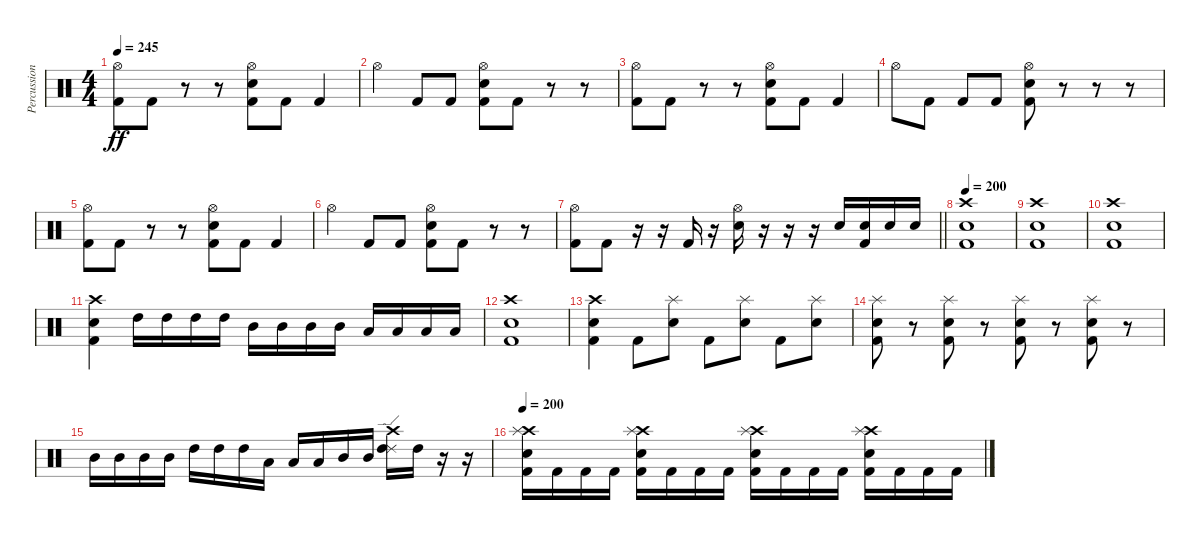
\track ("Percussion" "Percussion") {instrument percussion}
\staff {score}
\articulation defaults
\ts (4 4)
\tempo 245
\clef neutral
\ks c
("Hi-Hat (open)" "Kick (hit) 2").8{dy ff} "Kick (hit) 2".8 r.8 r.8 ("Hi-Hat (open)" "Electric Snare (hit)" "Kick (hit) 2").8 "Kick (hit) 2".8 "Kick (hit) 2".4 |
"Hi-Hat (open)".4 "Kick (hit) 2".8 "Kick (hit) 2".8 ("Hi-Hat (open)" "Electric Snare (hit)" "Kick (hit) 2").8 "Kick (hit) 2".8 r.8 r.8 |
("Hi-Hat (open)" "Kick (hit) 2").8 "Kick (hit) 2".8 r.8 r.8 ("Hi-Hat (open)" "Electric Snare (hit)" "Kick (hit) 2").8 "Kick (hit) 2".8 "Kick (hit) 2".4 |
"Hi-Hat (open)".8 "Kick (hit) 2".8 "Kick (hit) 2".8 "Kick (hit) 2".8 ("Hi-Hat (open)" "Electric Snare (hit)" "Kick (hit) 2").8 r.8 r.8 r.8 |
("Hi-Hat (open)" "Kick (hit) 2").8 "Kick (hit) 2".8 r.8 r.8 ("Hi-Hat (open)" "Electric Snare (hit)" "Kick (hit) 2").8 "Kick (hit) 2".8 "Kick (hit) 2".4 |
"Hi-Hat (open)".4 "Kick (hit) 2".8 "Kick (hit) 2".8 ("Hi-Hat (open)" "Electric Snare (hit)" "Kick (hit) 2").8 "Kick (hit) 2".8 r.8 r.8 |
\barLineRight lightlight
("Hi-Hat (open)" "Kick (hit) 2").8 "Kick (hit) 2".8 r.16 r.16 "Kick (hit) 2".16 r.16 ("Hi-Hat (open)" "Electric Snare (hit)").16 r.16 r.16 r.16 "Electric Snare (hit)".16 ("Electric Snare (hit)" "Kick (hit) 2").16 "Electric Snare (hit)".16 "Electric Snare (hit)".16 |
\tempo 200
("Crash high (hit)" "Electric Snare (hit)" "Kick (hit) 2").1 |
("Crash high (hit)" "Electric Snare (hit)" "Kick (hit) 2").1 |
("Crash high (hit)" "Electric Snare (hit)" "Kick (hit) 2").1 |
("Crash high (hit)" "Electric Snare (hit)" "Kick (hit) 2").4 "High Tom (hit)".16 "High Tom (hit)".16 "High Tom (hit)".16 "High Tom (hit)".16 "Mid Tom (hit)".16 "Mid Tom (hit)".16 "Mid Tom (hit)".16 "Mid Tom (hit)".16 "Low Tom (hit)".16 "Low Tom (hit)".16 "Low Tom (hit)".16 "Low Tom (hit)".16 |
("Crash high (hit)" "Electric Snare (hit)" "Kick (hit) 2").1 |
("Crash high (hit)" "Electric Snare (hit)" "Kick (hit) 2").4 "Kick (hit) 2".8 ("Splash (hit)" "Electric Snare (hit)").8 "Kick (hit) 2".8 ("Splash (hit)" "Electric Snare (hit)").8 "Kick (hit) 2".8 ("Splash (hit)" "Electric Snare (hit)").8 |
("Splash (hit)" "Electric Snare (hit)" "Kick (hit) 2").8 r.8 ("Splash (hit)" "Electric Snare (hit)" "Kick (hit) 2").8 r.8 ("Splash (hit)" "Electric Snare (hit)" "Kick (hit) 2").8 r.8 ("Splash (hit)" "Electric Snare (hit)" "Kick (hit) 2").8 r.8 |
"Mid Tom (hit)".16 "Mid Tom (hit)".16 "Mid Tom (hit)".16 "Mid Tom (hit)".16 "High Tom (hit)".16 "High Tom (hit)".16 "High Tom (hit)".16 "Low Tom (hit)".16 "Low Tom (hit)".16 "Low Tom (hit)".16 "Mid Tom (hit)".16 "Mid Tom (hit)".16 ("Ride (edge) 2" "Crash high (hit)" "High Tom (hit)").16 "High Tom (hit)".16 r.16 r.16 |
\tempo 200
("Crash high (hit)" "Splash (hit)" "Electric Snare (hit)" "Kick (hit) 2").16 "Kick (hit) 2".16 "Kick (hit) 2".16 "Kick (hit) 2".16 ("Crash high (hit)" "Splash (hit)" "Electric Snare (hit)" "Kick (hit) 2").16 "Kick (hit) 2".16 "Kick (hit) 2".16 "Kick (hit) 2".16 ("Crash high (hit)" "Splash (hit)" "Electric Snare (hit)" "Kick (hit) 2").16 "Kick (hit) 2".16 "Kick (hit) 2".16 "Kick (hit) 2".16 ("Crash high (hit)" "Splash (hit)" "Electric Snare (hit)" "Kick (hit) 2").16 "Kick (hit) 2".16 "Kick (hit) 2".16 "Kick (hit) 2".16
